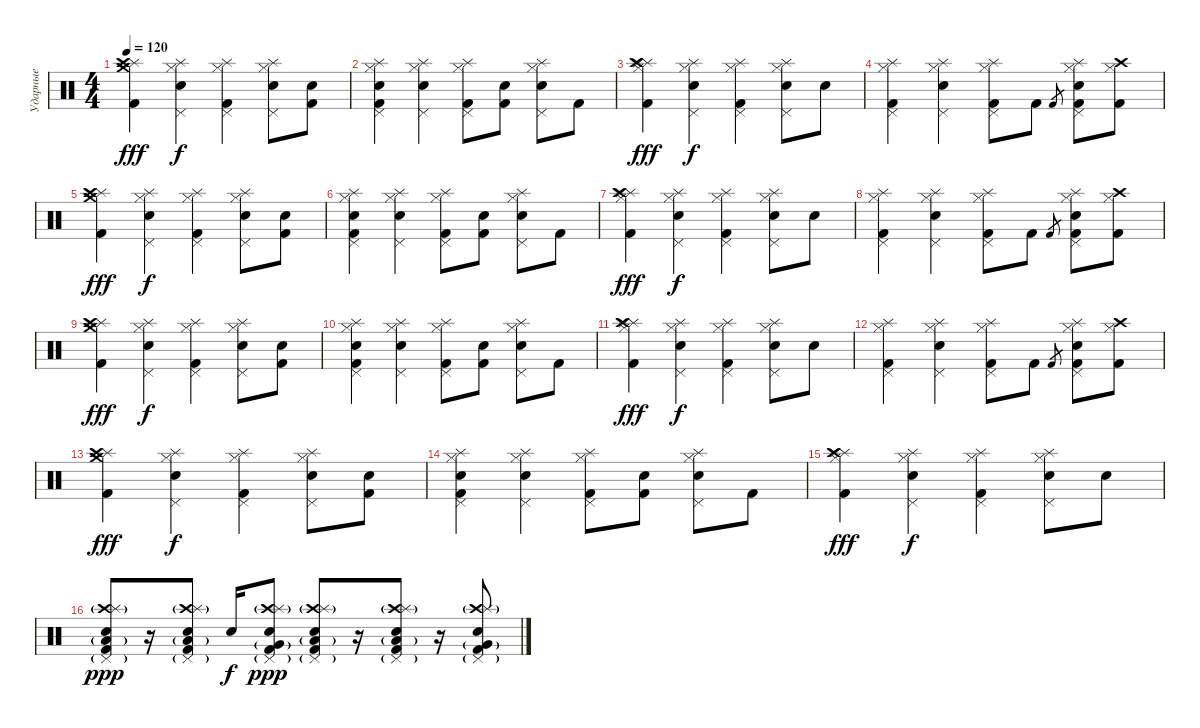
\track ("Ударные" "Ударные") {instrument percussion bank 2}
\staff {score}
\articulation defaults
\ts (4 4)
\tempo 120
\clef neutral
\ks c
("Kick (hit) 2" "Splash (hit)" "Crash medium (hit)" "Crash high (hit)").4{dy fff} ("Snare (hit) 2" "Pedal Hi-Hat (hit)" "Hi-Hat (closed)" "Splash (hit)").4{dy f} ("Kick (hit) 2" "Pedal Hi-Hat (hit)" "Hi-Hat (closed)" "Splash (hit)").4 ("Snare (hit) 2" "Pedal Hi-Hat (hit)" "Hi-Hat (closed)" "Splash (hit)").8 ("Kick (hit) 2" "Snare (hit)").8 |
("Kick (hit) 2" "Snare (hit)" "Pedal Hi-Hat (hit)" "Hi-Hat (closed)" "Splash (hit)").4 ("Snare (hit) 2" "Pedal Hi-Hat (hit)" "Hi-Hat (closed)" "Splash (hit)").4 ("Kick (hit) 2" "Pedal Hi-Hat (hit)" "Hi-Hat (closed)" "Splash (hit)").8 ("Kick (hit) 2" "Snare (hit)").8 ("Snare (hit) 2" "Pedal Hi-Hat (hit)" "Hi-Hat (closed)" "Splash (hit)").8 "Kick (hit) 2".8 |
("Kick (hit) 2" "Splash (hit)" "Crash high (hit)" "Hi-Hat (closed)" "Splash (hit)").4{dy fff} ("Snare (hit) 2" "Pedal Hi-Hat (hit)" "Hi-Hat (closed)" "Splash (hit)").4{dy f} ("Kick (hit) 2" "Pedal Hi-Hat (hit)" "Splash (hit)" "Hi-Hat (closed)").4 ("Snare (hit) 2" "Pedal Hi-Hat (hit)" "Hi-Hat (closed)" "Splash (hit)").8 "Snare (hit)".8 |
("Kick (hit) 2" "Pedal Hi-Hat (hit)" "Hi-Hat (closed)" "Splash (hit)").4 ("Snare (hit) 2" "Pedal Hi-Hat (hit)" "Hi-Hat (closed)" "Splash (hit)").4 ("Kick (hit) 2" "Pedal Hi-Hat (hit)" "Hi-Hat (closed)" "Splash (hit)").8 "Kick (hit) 2".8 "Kick (hit) 2".8{gr} ("Snare (hit) 2" "Kick (hit) 2" "Pedal Hi-Hat (hit)" "Hi-Hat (closed)" "Splash (hit)").8 ("Kick (hit) 2" "Hi-Hat (closed)" "Crash high (hit)").8 |
("Kick (hit) 2" "Splash (hit)" "Crash medium (hit)" "Crash high (hit)").4{dy fff} ("Snare (hit) 2" "Pedal Hi-Hat (hit)" "Hi-Hat (closed)" "Splash (hit)").4{dy f} ("Kick (hit) 2" "Pedal Hi-Hat (hit)" "Hi-Hat (closed)" "Splash (hit)").4 ("Snare (hit) 2" "Pedal Hi-Hat (hit)" "Hi-Hat (closed)" "Splash (hit)").8 ("Kick (hit) 2" "Snare (hit)").8 |
("Kick (hit) 2" "Snare (hit)" "Pedal Hi-Hat (hit)" "Hi-Hat (closed)" "Splash (hit)").4 ("Snare (hit) 2" "Pedal Hi-Hat (hit)" "Hi-Hat (closed)" "Splash (hit)").4 ("Kick (hit) 2" "Pedal Hi-Hat (hit)" "Hi-Hat (closed)" "Splash (hit)").8 ("Kick (hit) 2" "Snare (hit)").8 ("Snare (hit) 2" "Pedal Hi-Hat (hit)" "Hi-Hat (closed)" "Splash (hit)").8 "Kick (hit) 2".8 |
("Kick (hit) 2" "Splash (hit)" "Crash high (hit)" "Hi-Hat (closed)" "Splash (hit)").4{dy fff} ("Snare (hit) 2" "Pedal Hi-Hat (hit)" "Hi-Hat (closed)" "Splash (hit)").4{dy f} ("Kick (hit) 2" "Pedal Hi-Hat (hit)" "Splash (hit)" "Hi-Hat (closed)").4 ("Snare (hit) 2" "Pedal Hi-Hat (hit)" "Hi-Hat (closed)" "Splash (hit)").8 "Snare (hit)".8 |
("Kick (hit) 2" "Pedal Hi-Hat (hit)" "Hi-Hat (closed)" "Splash (hit)").4 ("Snare (hit) 2" "Pedal Hi-Hat (hit)" "Hi-Hat (closed)" "Splash (hit)").4 ("Kick (hit) 2" "Pedal Hi-Hat (hit)" "Hi-Hat (closed)" "Splash (hit)").8 "Kick (hit) 2".8 "Kick (hit) 2".8{gr} ("Snare (hit) 2" "Kick (hit) 2" "Pedal Hi-Hat (hit)" "Hi-Hat (closed)" "Splash (hit)").8 ("Kick (hit) 2" "Hi-Hat (closed)" "Crash high (hit)").8 |
("Kick (hit) 2" "Splash (hit)" "Crash medium (hit)" "Crash high (hit)").4{dy fff} ("Snare (hit) 2" "Pedal Hi-Hat (hit)" "Hi-Hat (closed)" "Splash (hit)").4{dy f} ("Kick (hit) 2" "Pedal Hi-Hat (hit)" "Hi-Hat (closed)" "Splash (hit)").4 ("Snare (hit) 2" "Pedal Hi-Hat (hit)" "Hi-Hat (closed)" "Splash (hit)").8 ("Kick (hit) 2" "Snare (hit)").8 |
("Kick (hit) 2" "Snare (hit)" "Pedal Hi-Hat (hit)" "Hi-Hat (closed)" "Splash (hit)").4 ("Snare (hit) 2" "Pedal Hi-Hat (hit)" "Hi-Hat (closed)" "Splash (hit)").4 ("Kick (hit) 2" "Pedal Hi-Hat (hit)" "Hi-Hat (closed)" "Splash (hit)").8 ("Kick (hit) 2" "Snare (hit)").8 ("Snare (hit) 2" "Pedal Hi-Hat (hit)" "Hi-Hat (closed)" "Splash (hit)").8 "Kick (hit) 2".8 |
("Kick (hit) 2" "Splash (hit)" "Crash high (hit)" "Hi-Hat (closed)" "Splash (hit)").4{dy fff} ("Snare (hit) 2" "Pedal Hi-Hat (hit)" "Hi-Hat (closed)" "Splash (hit)").4{dy f} ("Kick (hit) 2" "Pedal Hi-Hat (hit)" "Splash (hit)" "Hi-Hat (closed)").4 ("Snare (hit) 2" "Pedal Hi-Hat (hit)" "Hi-Hat (closed)" "Splash (hit)").8 "Snare (hit)".8 |
("Kick (hit) 2" "Pedal Hi-Hat (hit)" "Hi-Hat (closed)" "Splash (hit)").4 ("Snare (hit) 2" "Pedal Hi-Hat (hit)" "Hi-Hat (closed)" "Splash (hit)").4 ("Kick (hit) 2" "Pedal Hi-Hat (hit)" "Hi-Hat (closed)" "Splash (hit)").8 "Kick (hit) 2".8 "Kick (hit) 2".8{gr} ("Snare (hit) 2" "Kick (hit) 2" "Pedal Hi-Hat (hit)" "Hi-Hat (closed)" "Splash (hit)").8 ("Kick (hit) 2" "Hi-Hat (closed)" "Crash high (hit)").8 |
("Kick (hit) 2" "Splash (hit)" "Crash medium (hit)" "Crash high (hit)").4{dy fff} ("Snare (hit) 2" "Pedal Hi-Hat (hit)" "Hi-Hat (closed)" "Splash (hit)").4{dy f} ("Kick (hit) 2" "Pedal Hi-Hat (hit)" "Hi-Hat (closed)" "Splash (hit)").4 ("Snare (hit) 2" "Pedal Hi-Hat (hit)" "Hi-Hat (closed)" "Splash (hit)").8 ("Kick (hit) 2" "Snare (hit)").8 |
("Kick (hit) 2" "Snare (hit)" "Pedal Hi-Hat (hit)" "Hi-Hat (closed)" "Splash (hit)").4 ("Snare (hit) 2" "Pedal Hi-Hat (hit)" "Hi-Hat (closed)" "Splash (hit)").4 ("Kick (hit) 2" "Pedal Hi-Hat (hit)" "Hi-Hat (closed)" "Splash (hit)").8 ("Kick (hit) 2" "Snare (hit)").8 ("Snare (hit) 2" "Pedal Hi-Hat (hit)" "Hi-Hat (closed)" "Splash (hit)").8 "Kick (hit) 2".8 |
("Kick (hit) 2" "Splash (hit)" "Crash high (hit)" "Hi-Hat (closed)" "Splash (hit)").4{dy fff} ("Snare (hit) 2" "Pedal Hi-Hat (hit)" "Hi-Hat (closed)" "Splash (hit)").4{dy f} ("Kick (hit) 2" "Pedal Hi-Hat (hit)" "Splash (hit)" "Hi-Hat (closed)").4 ("Snare (hit) 2" "Pedal Hi-Hat (hit)" "Hi-Hat (closed)" "Splash (hit)").8 "Snare (hit)".8 |
("Kick (hit) 2" "Snare (hit) 2" "Crash high (hit)"{g} "Splash (hit)"{g} "Pedal Hi-Hat (hit)"{g} "Low Tom (hit)"{g}).8{dy ppp} r.16 ("Kick (hit) 2" "Snare (hit) 2" "Crash high (hit)"{g} "Splash (hit)"{g} "Pedal Hi-Hat (hit)"{g} "Low Tom (hit)"{g}).8 "Snare (hit)".16{dy f} ("Kick (hit) 2" "Snare (hit) 2" "Crash high (hit)"{g} "Splash (hit)"{g} "Pedal Hi-Hat (hit)"{g} "Very Low Tom (hit)"{g}).8{dy ppp} ("Kick (hit) 2" "Snare (hit) 2" "Crash high (hit)"{g} "Splash (hit)"{g} "Pedal Hi-Hat (hit)"{g} "Low Tom (hit)"{g}).8 r.16 ("Kick (hit) 2" "Snare (hit) 2" "Crash high (hit)"{g} "Splash (hit)"{g} "Pedal Hi-Hat (hit)"{g} "Low Tom (hit)"{g}).8 r.16 ("Kick (hit) 2" "Snare (hit) 2" "Crash high (hit)"{g} "Splash (hit)"{g} "Pedal Hi-Hat (hit)"{g} "Very Low Tom (hit)"{g}).8
